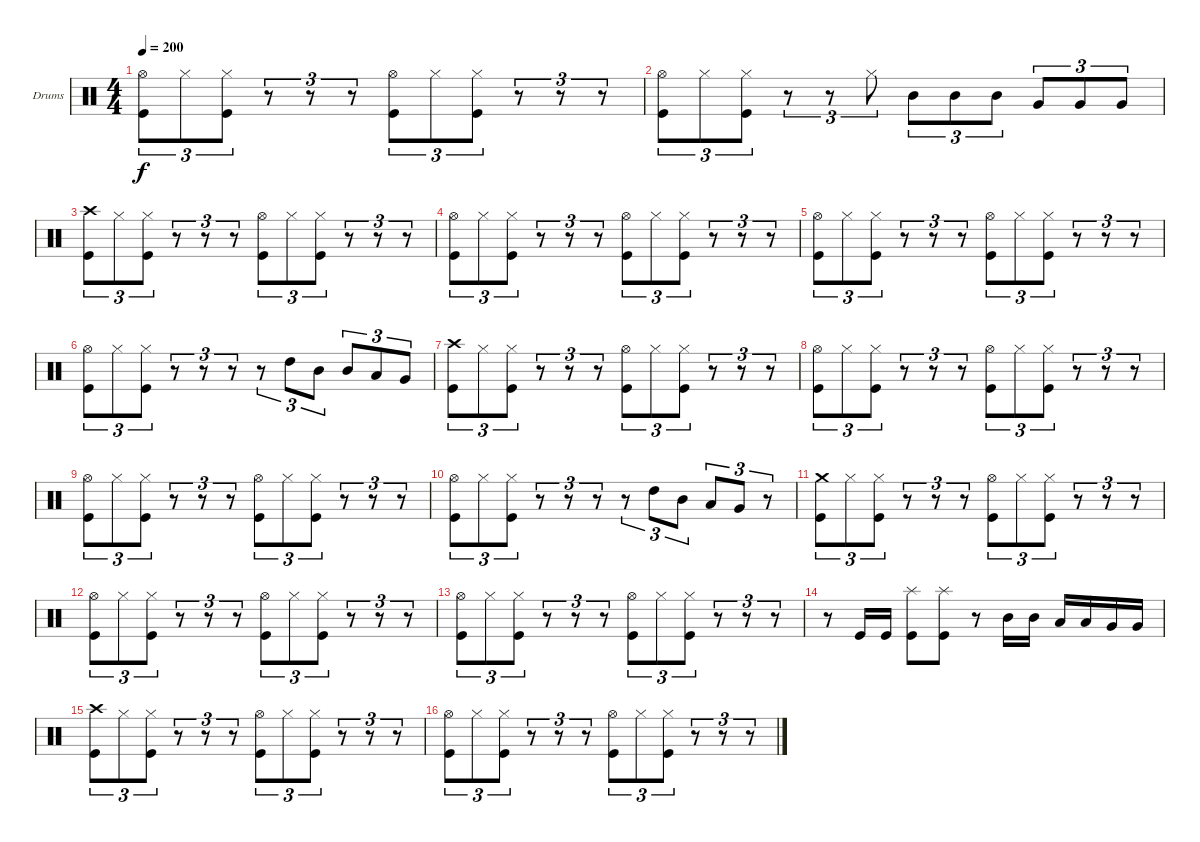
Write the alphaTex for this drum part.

\bracketExtendMode groupsimilarinstruments
\firstSystemTrackNameOrientation horizontal
\otherSystemsTrackNameOrientation horizontal
\track ("Drumkit" "Drums") {instrument percussion}
\staff {score}
\articulation defaults
\ts (4 4)
\tempo 200
\clef neutral
\scale
0.333333
\ks c
("Kick (hit)" "Hi-Hat (open)").8{tu (3 2) dy f} "Hi-Hat (closed)".8{tu (3 2)} ("Kick (hit)" "Hi-Hat (closed)").8{tu (3 2)} r.8{tu (3 2)} r.8{tu (3 2)} r.8{tu (3 2)} ("Kick (hit)" "Hi-Hat (open)").8{tu (3 2)} "Hi-Hat (closed)".8{tu (3 2)} ("Kick (hit)" "Hi-Hat (closed)").8{tu (3 2)} r.8{tu (3 2)} r.8{tu (3 2)} r.8{tu (3 2)} |
\scale
0.333333 ("Kick (hit)" "Hi-Hat (open)").8{tu (3 2)} "Hi-Hat (closed)".8{tu (3 2)} ("Kick (hit)" "Hi-Hat (closed)").8{tu (3 2)} r.8{tu (3 2)} r.8{tu (3 2)} "Hi-Hat (closed)".8{tu (3 2)} "Mid Tom (hit)".8{tu (3 2)} "Mid Tom (hit)".8{tu (3 2)} "Mid Tom (hit)".8{tu (3 2)} "Very Low Tom (hit)".8{tu (3 2)} "Very Low Tom (hit)".8{tu (3 2)} "Very Low Tom (hit)".8{tu (3 2)} |
\scale
0.333333 ("Kick (hit)" "Crash high (hit)").8{tu (3 2)} "Hi-Hat (closed)".8{tu (3 2)} ("Kick (hit)" "Hi-Hat (closed)").8{tu (3 2)} r.8{tu (3 2)} r.8{tu (3 2)} r.8{tu (3 2)} ("Kick (hit)" "Hi-Hat (open)").8{tu (3 2)} "Hi-Hat (closed)".8{tu (3 2)} ("Kick (hit)" "Hi-Hat (closed)").8{tu (3 2)} r.8{tu (3 2)} r.8{tu (3 2)} r.8{tu (3 2)} |
\scale
0.333333 ("Kick (hit)" "Hi-Hat (open)").8{tu (3 2)} "Hi-Hat (closed)".8{tu (3 2)} ("Kick (hit)" "Hi-Hat (closed)").8{tu (3 2)} r.8{tu (3 2)} r.8{tu (3 2)} r.8{tu (3 2)} ("Kick (hit)" "Hi-Hat (open)").8{tu (3 2)} "Hi-Hat (closed)".8{tu (3 2)} ("Kick (hit)" "Hi-Hat (closed)").8{tu (3 2)} r.8{tu (3 2)} r.8{tu (3 2)} r.8{tu (3 2)} |
\scale
0.333333 ("Kick (hit)" "Hi-Hat (open)").8{tu (3 2)} "Hi-Hat (closed)".8{tu (3 2)} ("Kick (hit)" "Hi-Hat (closed)").8{tu (3 2)} r.8{tu (3 2)} r.8{tu (3 2)} r.8{tu (3 2)} ("Kick (hit)" "Hi-Hat (open)").8{tu (3 2)} "Hi-Hat (closed)".8{tu (3 2)} ("Kick (hit)" "Hi-Hat (closed)").8{tu (3 2)} r.8{tu (3 2)} r.8{tu (3 2)} r.8{tu (3 2)} |
\scale
0.333333 ("Kick (hit)" "Hi-Hat (open)").8{tu (3 2)} "Hi-Hat (closed)".8{tu (3 2)} ("Kick (hit)" "Hi-Hat (closed)").8{tu (3 2)} r.8{tu (3 2)} r.8{tu (3 2)} r.8{tu (3 2)} r.8{tu (3 2)} "High Tom (hit)".8{tu (3 2)} "Mid Tom (hit)".8{tu (3 2)} "Mid Tom (hit)".8{tu (3 2)} "Low Tom (hit)".8{tu (3 2)} "Very Low Tom (hit)".8{tu (3 2)} |
\scale
0.333333 ("Kick (hit)" "Crash high (hit)").8{tu (3 2)} "Hi-Hat (closed)".8{tu (3 2)} ("Kick (hit)" "Hi-Hat (closed)").8{tu (3 2)} r.8{tu (3 2)} r.8{tu (3 2)} r.8{tu (3 2)} ("Kick (hit)" "Hi-Hat (open)").8{tu (3 2)} "Hi-Hat (closed)".8{tu (3 2)} ("Kick (hit)" "Hi-Hat (closed)").8{tu (3 2)} r.8{tu (3 2)} r.8{tu (3 2)} r.8{tu (3 2)} |
\scale
0.333333 ("Kick (hit)" "Hi-Hat (open)").8{tu (3 2)} "Hi-Hat (closed)".8{tu (3 2)} ("Kick (hit)" "Hi-Hat (closed)").8{tu (3 2)} r.8{tu (3 2)} r.8{tu (3 2)} r.8{tu (3 2)} ("Kick (hit)" "Hi-Hat (open)").8{tu (3 2)} "Hi-Hat (closed)".8{tu (3 2)} ("Kick (hit)" "Hi-Hat (closed)").8{tu (3 2)} r.8{tu (3 2)} r.8{tu (3 2)} r.8{tu (3 2)} |
\scale
0.333333 ("Kick (hit)" "Hi-Hat (open)").8{tu (3 2)} "Hi-Hat (closed)".8{tu (3 2)} ("Kick (hit)" "Hi-Hat (closed)").8{tu (3 2)} r.8{tu (3 2)} r.8{tu (3 2)} r.8{tu (3 2)} ("Kick (hit)" "Hi-Hat (open)").8{tu (3 2)} "Hi-Hat (closed)".8{tu (3 2)} ("Kick (hit)" "Hi-Hat (closed)").8{tu (3 2)} r.8{tu (3 2)} r.8{tu (3 2)} r.8{tu (3 2)} |
\scale
0.333333 ("Kick (hit)" "Hi-Hat (open)").8{tu (3 2)} "Hi-Hat (closed)".8{tu (3 2)} ("Kick (hit)" "Hi-Hat (closed)").8{tu (3 2)} r.8{tu (3 2)} r.8{tu (3 2)} r.8{tu (3 2)} r.8{tu (3 2)} "High Tom (hit)".8{tu (3 2)} "Mid Tom (hit)".8{tu (3 2)} "Low Tom (hit)".8{tu (3 2)} "Very Low Tom (hit)".8{tu (3 2)} r.8{tu (3 2)} |
\scale
0.333333 ("Kick (hit)" "Crash medium (hit)").8{tu (3 2)} "Hi-Hat (closed)".8{tu (3 2)} ("Kick (hit)" "Hi-Hat (closed)").8{tu (3 2)} r.8{tu (3 2)} r.8{tu (3 2)} r.8{tu (3 2)} ("Kick (hit)" "Hi-Hat (open)").8{tu (3 2)} "Hi-Hat (closed)".8{tu (3 2)} ("Kick (hit)" "Hi-Hat (closed)").8{tu (3 2)} r.8{tu (3 2)} r.8{tu (3 2)} r.8{tu (3 2)} |
\scale
0.333333 ("Kick (hit)" "Hi-Hat (open)").8{tu (3 2)} "Hi-Hat (closed)".8{tu (3 2)} ("Kick (hit)" "Hi-Hat (closed)").8{tu (3 2)} r.8{tu (3 2)} r.8{tu (3 2)} r.8{tu (3 2)} ("Kick (hit)" "Hi-Hat (open)").8{tu (3 2)} "Hi-Hat (closed)".8{tu (3 2)} ("Kick (hit)" "Hi-Hat (closed)").8{tu (3 2)} r.8{tu (3 2)} r.8{tu (3 2)} r.8{tu (3 2)} |
\scale
0.333333 ("Kick (hit)" "Hi-Hat (open)").8{tu (3 2)} "Hi-Hat (closed)".8{tu (3 2)} ("Kick (hit)" "Hi-Hat (closed)").8{tu (3 2)} r.8{tu (3 2)} r.8{tu (3 2)} r.8{tu (3 2)} ("Kick (hit)" "Hi-Hat (open)").8{tu (3 2)} "Hi-Hat (closed)".8{tu (3 2)} ("Kick (hit)" "Hi-Hat (closed)").8{tu (3 2)} r.8{tu (3 2)} r.8{tu (3 2)} r.8{tu (3 2)} |
\scale
0.333333 r.8 "Kick (hit)".16 "Kick (hit)".16 ("Kick (hit)" "Splash (hit)").8 ("Kick (hit)" "Splash (hit)").8 r.8 "Mid Tom (hit)".16 "Mid Tom (hit)".16 "Low Tom (hit)".16 "Low Tom (hit)".16 "Very Low Tom (hit)".16 "Very Low Tom (hit)".16 |
\scale
0.333333 ("Kick (hit)" "Crash high (hit)").8{tu (3 2)} "Hi-Hat (closed)".8{tu (3 2)} ("Kick (hit)" "Hi-Hat (closed)").8{tu (3 2)} r.8{tu (3 2)} r.8{tu (3 2)} r.8{tu (3 2)} ("Kick (hit)" "Hi-Hat (open)").8{tu (3 2)} "Hi-Hat (closed)".8{tu (3 2)} ("Kick (hit)" "Hi-Hat (closed)").8{tu (3 2)} r.8{tu (3 2)} r.8{tu (3 2)} r.8{tu (3 2)} |
\scale
0.333333 ("Kick (hit)" "Hi-Hat (open)").8{tu (3 2)} "Hi-Hat (closed)".8{tu (3 2)} ("Kick (hit)" "Hi-Hat (closed)").8{tu (3 2)} r.8{tu (3 2)} r.8{tu (3 2)} r.8{tu (3 2)} ("Kick (hit)" "Hi-Hat (open)").8{tu (3 2)} "Hi-Hat (closed)".8{tu (3 2)} ("Kick (hit)" "Hi-Hat (closed)").8{tu (3 2)} r.8{tu (3 2)} r.8{tu (3 2)} r.8{tu (3 2)}
